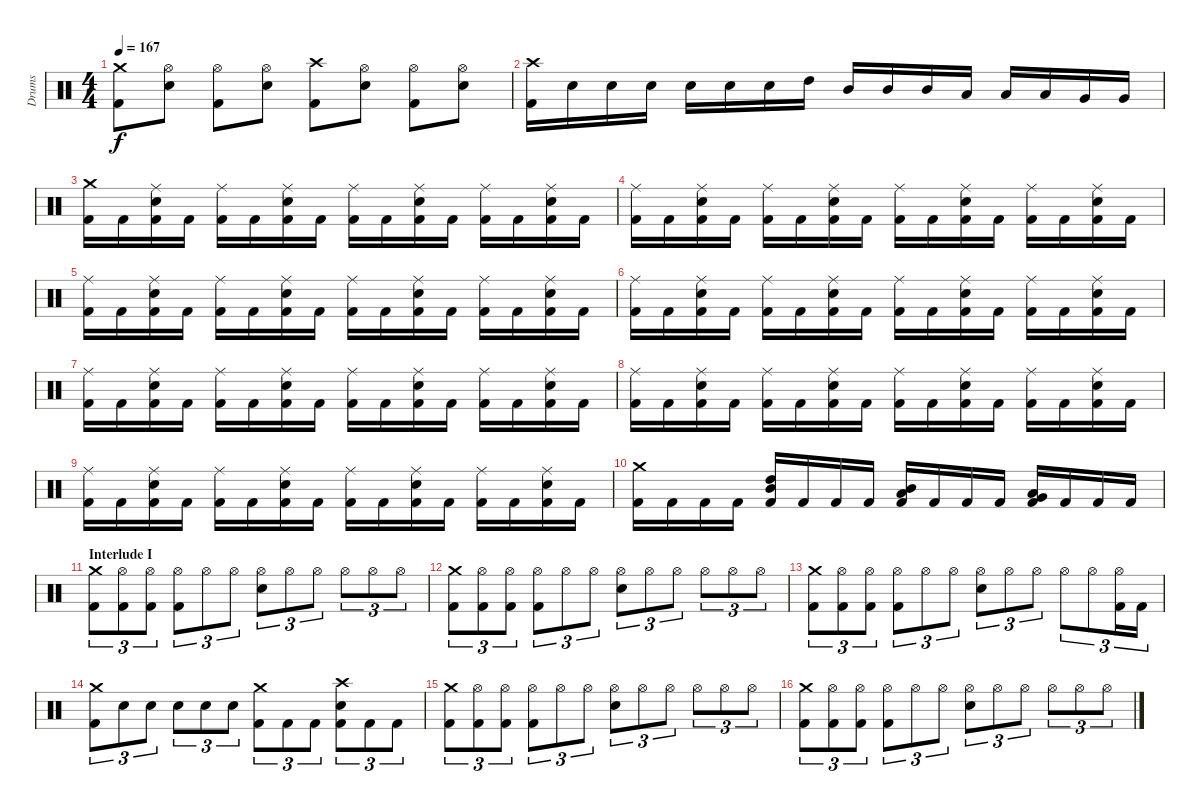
\track ("Drums" "Drums") {instrument percussion}
\staff {score}
\articulation defaults
\ts (4 4)
\tempo 167
\clef neutral
\ks c
("Kick (hit) 2" "Crash medium (hit)").8{dy f} ("Electric Snare (hit)" "Hi-Hat (open)").8 ("Kick (hit) 2" "Hi-Hat (open)").8 ("Electric Snare (hit)" "Hi-Hat (open)").8 ("Kick (hit) 2" "Crash high (hit)").8 ("Electric Snare (hit)" "Hi-Hat (open)").8 ("Kick (hit) 2" "Hi-Hat (open)").8 ("Electric Snare (hit)" "Hi-Hat (open)").8 |
("Kick (hit) 2" "Crash high (hit)").16 "Electric Snare (hit)".16 "Electric Snare (hit)".16 "Electric Snare (hit)".16 "Electric Snare (hit)".16 "Electric Snare (hit)".16 "Electric Snare (hit)".16 "High Tom (hit)".16 "Mid Tom (hit)".16 "Mid Tom (hit)".16 "Mid Tom (hit)".16 "Low Tom (hit)".16 "Low Tom (hit)".16 "Low Tom (hit)".16 "Very Low Tom (hit)".16 "Very Low Tom (hit)".16 |
("Kick (hit) 2" "Crash medium (hit)").16 "Kick (hit) 2".16 ("Kick (hit) 2" "Electric Snare (hit)" "Ride (middle)").16 "Kick (hit) 2".16 ("Kick (hit) 2" "Ride (middle)").16 "Kick (hit) 2".16 ("Kick (hit) 2" "Electric Snare (hit)" "Ride (middle)").16 "Kick (hit) 2".16 ("Kick (hit) 2" "Ride (middle)").16 "Kick (hit) 2".16 ("Kick (hit) 2" "Electric Snare (hit)" "Ride (middle)").16 "Kick (hit) 2".16 ("Kick (hit) 2" "Ride (middle)").16 "Kick (hit) 2".16 ("Kick (hit) 2" "Electric Snare (hit)" "Ride (middle)").16 "Kick (hit) 2".16 |
("Kick (hit) 2" "Ride (middle)").16 "Kick (hit) 2".16 ("Kick (hit) 2" "Electric Snare (hit)" "Ride (middle)").16 "Kick (hit) 2".16 ("Kick (hit) 2" "Ride (middle)").16 "Kick (hit) 2".16 ("Kick (hit) 2" "Electric Snare (hit)" "Ride (middle)").16 "Kick (hit) 2".16 ("Kick (hit) 2" "Ride (middle)").16 "Kick (hit) 2".16 ("Kick (hit) 2" "Electric Snare (hit)" "Ride (middle)").16 "Kick (hit) 2".16 ("Kick (hit) 2" "Ride (middle)").16 "Kick (hit) 2".16 ("Kick (hit) 2" "Electric Snare (hit)" "Ride (middle)").16 "Kick (hit) 2".16 |
("Kick (hit) 2" "Ride (middle)").16 "Kick (hit) 2".16 ("Kick (hit) 2" "Electric Snare (hit)" "Ride (middle)").16 "Kick (hit) 2".16 ("Kick (hit) 2" "Ride (middle)").16 "Kick (hit) 2".16 ("Kick (hit) 2" "Electric Snare (hit)" "Ride (middle)").16 "Kick (hit) 2".16 ("Kick (hit) 2" "Ride (middle)").16 "Kick (hit) 2".16 ("Kick (hit) 2" "Electric Snare (hit)" "Ride (middle)").16 "Kick (hit) 2".16 ("Kick (hit) 2" "Ride (middle)").16 "Kick (hit) 2".16 ("Kick (hit) 2" "Electric Snare (hit)" "Ride (middle)").16 "Kick (hit) 2".16 |
("Kick (hit) 2" "Ride (middle)").16 "Kick (hit) 2".16 ("Kick (hit) 2" "Electric Snare (hit)" "Ride (middle)").16 "Kick (hit) 2".16 ("Kick (hit) 2" "Ride (middle)").16 "Kick (hit) 2".16 ("Kick (hit) 2" "Electric Snare (hit)" "Ride (middle)").16 "Kick (hit) 2".16 ("Kick (hit) 2" "Ride (middle)").16 "Kick (hit) 2".16 ("Kick (hit) 2" "Electric Snare (hit)" "Ride (middle)").16 "Kick (hit) 2".16 ("Kick (hit) 2" "Ride (middle)").16 "Kick (hit) 2".16 ("Kick (hit) 2" "Electric Snare (hit)" "Ride (middle)").16 "Kick (hit) 2".16 |
("Kick (hit) 2" "Ride (middle)").16 "Kick (hit) 2".16 ("Kick (hit) 2" "Electric Snare (hit)" "Ride (middle)").16 "Kick (hit) 2".16 ("Kick (hit) 2" "Ride (middle)").16 "Kick (hit) 2".16 ("Kick (hit) 2" "Electric Snare (hit)" "Ride (middle)").16 "Kick (hit) 2".16 ("Kick (hit) 2" "Ride (middle)").16 "Kick (hit) 2".16 ("Kick (hit) 2" "Electric Snare (hit)" "Ride (middle)").16 "Kick (hit) 2".16 ("Kick (hit) 2" "Ride (middle)").16 "Kick (hit) 2".16 ("Kick (hit) 2" "Electric Snare (hit)" "Ride (middle)").16 "Kick (hit) 2".16 |
("Kick (hit) 2" "Ride (middle)").16 "Kick (hit) 2".16 ("Kick (hit) 2" "Electric Snare (hit)" "Ride (middle)").16 "Kick (hit) 2".16 ("Kick (hit) 2" "Ride (middle)").16 "Kick (hit) 2".16 ("Kick (hit) 2" "Electric Snare (hit)" "Ride (middle)").16 "Kick (hit) 2".16 ("Kick (hit) 2" "Ride (middle)").16 "Kick (hit) 2".16 ("Kick (hit) 2" "Electric Snare (hit)" "Ride (middle)").16 "Kick (hit) 2".16 ("Kick (hit) 2" "Ride (middle)").16 "Kick (hit) 2".16 ("Kick (hit) 2" "Electric Snare (hit)" "Ride (middle)").16 "Kick (hit) 2".16 |
("Kick (hit) 2" "Ride (middle)").16 "Kick (hit) 2".16 ("Kick (hit) 2" "Electric Snare (hit)" "Ride (middle)").16 "Kick (hit) 2".16 ("Kick (hit) 2" "Ride (middle)").16 "Kick (hit) 2".16 ("Kick (hit) 2" "Electric Snare (hit)" "Ride (middle)").16 "Kick (hit) 2".16 ("Kick (hit) 2" "Ride (middle)").16 "Kick (hit) 2".16 ("Kick (hit) 2" "Electric Snare (hit)" "Ride (middle)").16 "Kick (hit) 2".16 ("Kick (hit) 2" "Ride (middle)").16 "Kick (hit) 2".16 ("Kick (hit) 2" "Electric Snare (hit)" "Ride (middle)").16 "Kick (hit) 2".16 |
("Kick (hit) 2" "Crash medium (hit)").16 "Kick (hit) 2".16 "Kick (hit) 2".16 "Kick (hit) 2".16 ("Kick (hit) 2" "Mid Tom (hit)" "High Tom (hit)").16 "Kick (hit) 2".16 "Kick (hit) 2".16 "Kick (hit) 2".16 ("Kick (hit) 2" "Low Tom (hit)" "Mid Tom (hit)").16 "Kick (hit) 2".16 "Kick (hit) 2".16 "Kick (hit) 2".16 ("Kick (hit) 2" "Very Low Tom (hit)" "Low Tom (hit)").16 "Kick (hit) 2".16 "Kick (hit) 2".16 "Kick (hit) 2".16 |
\section ("" "Interlude I")
("Kick (hit) 2" "Crash medium (hit)").8{tu (3 2)} ("Kick (hit) 2" "Hi-Hat (open)").8{tu (3 2)} ("Kick (hit) 2" "Hi-Hat (open)").8{tu (3 2)} ("Kick (hit) 2" "Hi-Hat (open)").8{tu (3 2)} "Hi-Hat (open)".8{tu (3 2)} "Hi-Hat (open)".8{tu (3 2)} ("Electric Snare (hit)" "Hi-Hat (open)").8{tu (3 2)} "Hi-Hat (open)".8{tu (3 2)} "Hi-Hat (open)".8{tu (3 2)} "Hi-Hat (open)".8{tu (3 2)} "Hi-Hat (open)".8{tu (3 2)} "Hi-Hat (open)".8{tu (3 2)} |
("Kick (hit) 2" "Crash medium (hit)").8{tu (3 2)} ("Kick (hit) 2" "Hi-Hat (open)").8{tu (3 2)} ("Kick (hit) 2" "Hi-Hat (open)").8{tu (3 2)} ("Kick (hit) 2" "Hi-Hat (open)").8{tu (3 2)} "Hi-Hat (open)".8{tu (3 2)} "Hi-Hat (open)".8{tu (3 2)} ("Electric Snare (hit)" "Hi-Hat (open)").8{tu (3 2)} "Hi-Hat (open)".8{tu (3 2)} "Hi-Hat (open)".8{tu (3 2)} "Hi-Hat (open)".8{tu (3 2)} "Hi-Hat (open)".8{tu (3 2)} "Hi-Hat (open)".8{tu (3 2)} |
("Kick (hit) 2" "Crash medium (hit)").8{tu (3 2)} ("Kick (hit) 2" "Hi-Hat (open)").8{tu (3 2)} ("Kick (hit) 2" "Hi-Hat (open)").8{tu (3 2)} ("Kick (hit) 2" "Hi-Hat (open)").8{tu (3 2)} "Hi-Hat (open)".8{tu (3 2)} "Hi-Hat (open)".8{tu (3 2)} ("Electric Snare (hit)" "Hi-Hat (open)").8{tu (3 2)} "Hi-Hat (open)".8{tu (3 2)} "Hi-Hat (open)".8{tu (3 2)} "Hi-Hat (open)".8{tu (3 2)} "Hi-Hat (open)".8{tu (3 2)} ("Kick (hit) 2" "Hi-Hat (open)").16{tu (3 2)} "Kick (hit) 2".16{tu (3 2)} |
("Kick (hit) 2" "Crash medium (hit)").8{tu (3 2)} "Electric Snare (hit)".8{tu (3 2)} "Electric Snare (hit)".8{tu (3 2)} "Electric Snare (hit)".8{tu (3 2)} "Electric Snare (hit)".8{tu (3 2)} "Electric Snare (hit)".8{tu (3 2)} ("Kick (hit) 2" "Crash medium (hit)").8{tu (3 2)} "Kick (hit) 2".8{tu (3 2)} "Kick (hit) 2".8{tu (3 2)} ("Kick (hit) 2" "Electric Snare (hit)" "Crash high (hit)").8{tu (3 2)} "Kick (hit) 2".8{tu (3 2)} "Kick (hit) 2".8{tu (3 2)} |
("Kick (hit) 2" "Crash medium (hit)").8{tu (3 2)} ("Kick (hit) 2" "Hi-Hat (open)").8{tu (3 2)} ("Kick (hit) 2" "Hi-Hat (open)").8{tu (3 2)} ("Kick (hit) 2" "Hi-Hat (open)").8{tu (3 2)} "Hi-Hat (open)".8{tu (3 2)} "Hi-Hat (open)".8{tu (3 2)} ("Electric Snare (hit)" "Hi-Hat (open)").8{tu (3 2)} "Hi-Hat (open)".8{tu (3 2)} "Hi-Hat (open)".8{tu (3 2)} "Hi-Hat (open)".8{tu (3 2)} "Hi-Hat (open)".8{tu (3 2)} "Hi-Hat (open)".8{tu (3 2)} |
("Kick (hit) 2" "Crash medium (hit)").8{tu (3 2)} ("Kick (hit) 2" "Hi-Hat (open)").8{tu (3 2)} ("Kick (hit) 2" "Hi-Hat (open)").8{tu (3 2)} ("Kick (hit) 2" "Hi-Hat (open)").8{tu (3 2)} "Hi-Hat (open)".8{tu (3 2)} "Hi-Hat (open)".8{tu (3 2)} ("Electric Snare (hit)" "Hi-Hat (open)").8{tu (3 2)} "Hi-Hat (open)".8{tu (3 2)} "Hi-Hat (open)".8{tu (3 2)} "Hi-Hat (open)".8{tu (3 2)} "Hi-Hat (open)".8{tu (3 2)} "Hi-Hat (open)".8{tu (3 2)}
